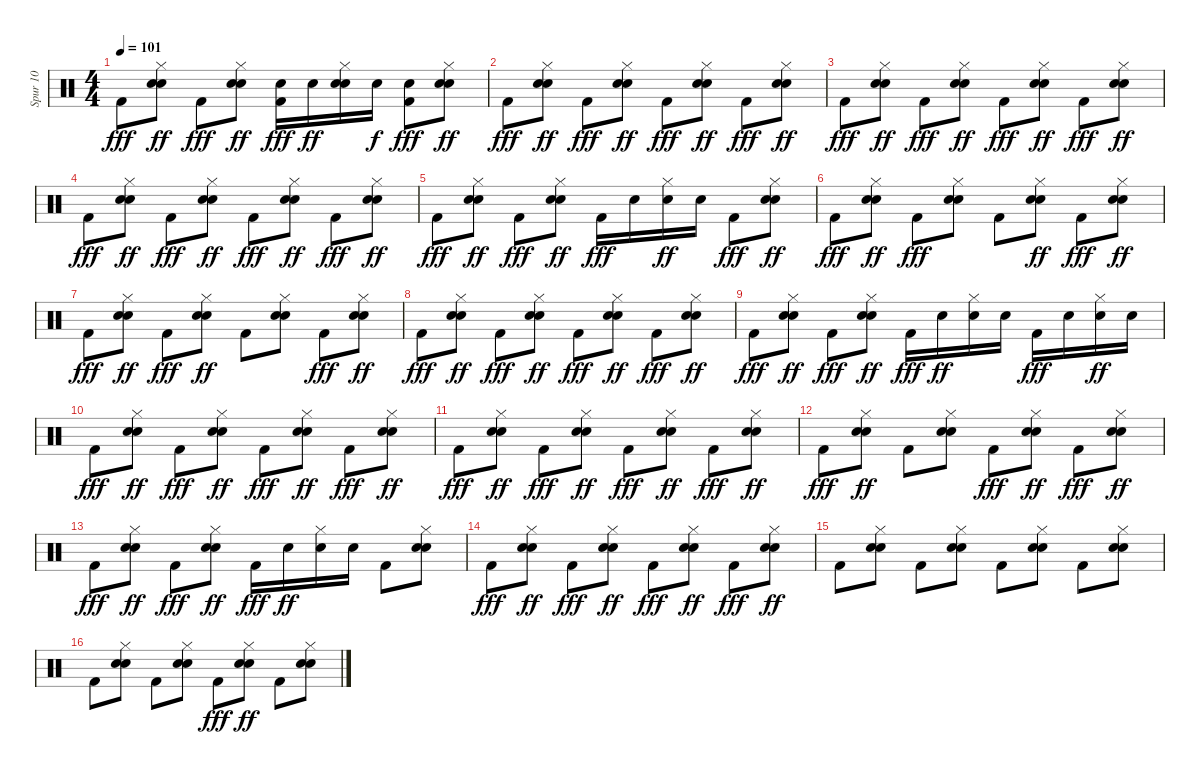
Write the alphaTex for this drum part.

\track ("Spur 10" "Spur 10") {instrument percussion}
\staff {score}
\articulation defaults
\ts (4 4)
\tempo 101
\clef neutral
\ks c "Kick (hit) 2".8{dy fff}
("Snare (hit) 2" "Hi-Hat (closed)" "Snare (hit) 2").8{dy ff} "Kick (hit) 2".8{dy fff} ("Snare (hit) 2" "Hi-Hat (closed)" "Snare (hit) 2").8{dy ff} ("Snare (hit) 2" "Kick (hit) 2").16{dy fff} "Snare (hit) 2".16{dy ff} ("Snare (hit) 2" "Hi-Hat (closed)" "Snare (hit) 2").16 "Snare (hit) 2".16{dy f} ("Snare (hit) 2" "Kick (hit) 2").8{dy fff} ("Snare (hit) 2" "Hi-Hat (closed)" "Snare (hit) 2").8{dy ff} |
"Kick (hit) 2".8{dy fff} ("Snare (hit) 2" "Hi-Hat (closed)" "Snare (hit) 2").8{dy ff} "Kick (hit) 2".8{dy fff} ("Snare (hit) 2" "Snare (hit) 2" "Hi-Hat (closed)").8{dy ff} "Kick (hit) 2".8{dy fff} ("Snare (hit) 2" "Snare (hit) 2" "Hi-Hat (closed)").8{dy ff} "Kick (hit) 2".8{dy fff} ("Snare (hit) 2" "Snare (hit) 2" "Hi-Hat (closed)").8{dy ff} |
"Kick (hit) 2".8{dy fff} ("Snare (hit) 2" "Snare (hit) 2" "Hi-Hat (closed)").8{dy ff} "Kick (hit) 2".8{dy fff} ("Snare (hit) 2" "Hi-Hat (closed)" "Snare (hit) 2").8{dy ff} "Kick (hit) 2".8{dy fff} ("Snare (hit) 2" "Snare (hit) 2" "Hi-Hat (closed)").8{dy ff} "Kick (hit) 2".8{dy fff} ("Snare (hit) 2" "Snare (hit) 2" "Hi-Hat (closed)").8{dy ff} |
"Kick (hit) 2".8{dy fff} ("Snare (hit) 2" "Hi-Hat (closed)" "Snare (hit) 2").8{dy ff} "Kick (hit) 2".8{dy fff} ("Snare (hit) 2" "Snare (hit) 2" "Hi-Hat (closed)").8{dy ff} "Kick (hit) 2".8{dy fff} ("Snare (hit) 2" "Snare (hit) 2" "Hi-Hat (closed)").8{dy ff} "Kick (hit) 2".8{dy fff} ("Snare (hit) 2" "Snare (hit) 2" "Hi-Hat (closed)").8{dy ff} |
"Kick (hit) 2".8{dy fff} ("Snare (hit) 2" "Snare (hit) 2" "Hi-Hat (closed)").8{dy ff} "Kick (hit) 2".8{dy fff} ("Snare (hit) 2" "Snare (hit) 2" "Hi-Hat (closed)").8{dy ff} "Kick (hit) 2".16{dy fff} "Snare (hit) 2".16 ("Hi-Hat (closed)" "Snare (hit) 2").16{dy ff} "Snare (hit) 2".16 "Kick (hit) 2".8{dy fff} ("Snare (hit) 2" "Snare (hit) 2" "Hi-Hat (closed)").8{dy ff} |
"Kick (hit) 2".8{dy fff} ("Snare (hit) 2" "Snare (hit) 2" "Hi-Hat (closed)").8{dy ff} "Kick (hit) 2".8{dy fff} ("Snare (hit) 2" "Hi-Hat (closed)" "Snare (hit) 2").8 "Kick (hit) 2".8 ("Snare (hit) 2" "Hi-Hat (closed)" "Snare (hit) 2").8{dy ff} "Kick (hit) 2".8{dy fff} ("Snare (hit) 2" "Hi-Hat (closed)" "Snare (hit) 2").8{dy ff} |
"Kick (hit) 2".8{dy fff} ("Snare (hit) 2" "Hi-Hat (closed)" "Snare (hit) 2").8{dy ff} "Kick (hit) 2".8{dy fff} ("Snare (hit) 2" "Hi-Hat (closed)" "Snare (hit) 2").8{dy ff} "Kick (hit) 2".8 ("Snare (hit) 2" "Hi-Hat (closed)" "Snare (hit) 2").8 "Kick (hit) 2".8{dy fff} ("Snare (hit) 2" "Snare (hit) 2" "Hi-Hat (closed)").8{dy ff} |
"Kick (hit) 2".8{dy fff} ("Snare (hit) 2" "Snare (hit) 2" "Hi-Hat (closed)").8{dy ff} "Kick (hit) 2".8{dy fff} ("Snare (hit) 2" "Snare (hit) 2" "Hi-Hat (closed)").8{dy ff} "Kick (hit) 2".8{dy fff} ("Snare (hit) 2" "Hi-Hat (closed)" "Snare (hit) 2").8{dy ff} "Kick (hit) 2".8{dy fff} ("Snare (hit) 2" "Hi-Hat (closed)" "Snare (hit) 2").8{dy ff} |
"Kick (hit) 2".8{dy fff} ("Snare (hit) 2" "Snare (hit) 2" "Hi-Hat (closed)").8{dy ff} "Kick (hit) 2".8{dy fff} ("Snare (hit) 2" "Snare (hit) 2" "Hi-Hat (closed)").8{dy ff} "Kick (hit) 2".16{dy fff} "Snare (hit) 2".16{dy ff} ("Hi-Hat (closed)" "Snare (hit) 2").16 "Snare (hit) 2".16 "Kick (hit) 2".16{dy fff} "Snare (hit) 2".16 ("Snare (hit) 2" "Hi-Hat (closed)").16{dy ff} "Snare (hit) 2".16 |
"Kick (hit) 2".8{dy fff} ("Snare (hit) 2" "Hi-Hat (closed)" "Snare (hit) 2").8{dy ff} "Kick (hit) 2".8{dy fff} ("Snare (hit) 2" "Hi-Hat (closed)" "Snare (hit) 2").8{dy ff} "Kick (hit) 2".8{dy fff} ("Snare (hit) 2" "Hi-Hat (closed)" "Snare (hit) 2").8{dy ff} "Kick (hit) 2".8{dy fff} ("Snare (hit) 2" "Hi-Hat (closed)" "Snare (hit) 2").8{dy ff} |
"Kick (hit) 2".8{dy fff} ("Snare (hit) 2" "Hi-Hat (closed)" "Snare (hit) 2").8{dy ff} "Kick (hit) 2".8{dy fff} ("Snare (hit) 2" "Hi-Hat (closed)" "Snare (hit) 2").8{dy ff} "Kick (hit) 2".8{dy fff} ("Snare (hit) 2" "Hi-Hat (closed)" "Snare (hit) 2").8{dy ff} "Kick (hit) 2".8{dy fff} ("Snare (hit) 2" "Hi-Hat (closed)" "Snare (hit) 2").8{dy ff} |
"Kick (hit) 2".8{dy fff} ("Snare (hit) 2" "Hi-Hat (closed)" "Snare (hit) 2").8{dy ff} "Kick (hit) 2".8 ("Snare (hit) 2" "Hi-Hat (closed)" "Snare (hit) 2").8 "Kick (hit) 2".8{dy fff} ("Snare (hit) 2" "Hi-Hat (closed)" "Snare (hit) 2").8{dy ff} "Kick (hit) 2".8{dy fff} ("Snare (hit) 2" "Hi-Hat (closed)" "Snare (hit) 2").8{dy ff} |
"Kick (hit) 2".8{dy fff} ("Snare (hit) 2" "Snare (hit) 2" "Hi-Hat (closed)").8{dy ff} "Kick (hit) 2".8{dy fff} ("Snare (hit) 2" "Hi-Hat (closed)" "Snare (hit) 2").8{dy ff} "Kick (hit) 2".16{dy fff} "Snare (hit) 2".16{dy ff} ("Hi-Hat (closed)" "Snare (hit) 2").16 "Snare (hit) 2".16 "Kick (hit) 2".8 ("Snare (hit) 2" "Hi-Hat (closed)" "Snare (hit) 2").8 |
"Kick (hit) 2".8{dy fff} ("Snare (hit) 2" "Snare (hit) 2" "Hi-Hat (closed)").8{dy ff} "Kick (hit) 2".8{dy fff} ("Snare (hit) 2" "Hi-Hat (closed)" "Snare (hit) 2").8{dy ff} "Kick (hit) 2".8{dy fff} ("Snare (hit) 2" "Hi-Hat (closed)" "Snare (hit) 2").8{dy ff} "Kick (hit) 2".8{dy fff} ("Snare (hit) 2" "Hi-Hat (closed)" "Snare (hit) 2").8{dy ff} |
"Kick (hit) 2".8 ("Snare (hit) 2" "Snare (hit) 2" "Hi-Hat (closed)").8 "Kick (hit) 2".8 ("Snare (hit) 2" "Snare (hit) 2" "Hi-Hat (closed)").8 "Kick (hit) 2".8 ("Snare (hit) 2" "Hi-Hat (closed)" "Snare (hit) 2").8 "Kick (hit) 2".8 ("Snare (hit) 2" "Snare (hit) 2" "Hi-Hat (closed)").8 |
"Kick (hit) 2".8 ("Snare (hit) 2" "Hi-Hat (closed)" "Snare (hit) 2").8 "Kick (hit) 2".8 ("Snare (hit) 2" "Hi-Hat (closed)" "Snare (hit) 2").8 "Kick (hit) 2".8{dy fff} ("Snare (hit) 2" "Hi-Hat (closed)" "Snare (hit) 2").8{dy ff} "Kick (hit) 2".8 ("Snare (hit) 2" "Hi-Hat (closed)" "Snare (hit) 2").8
